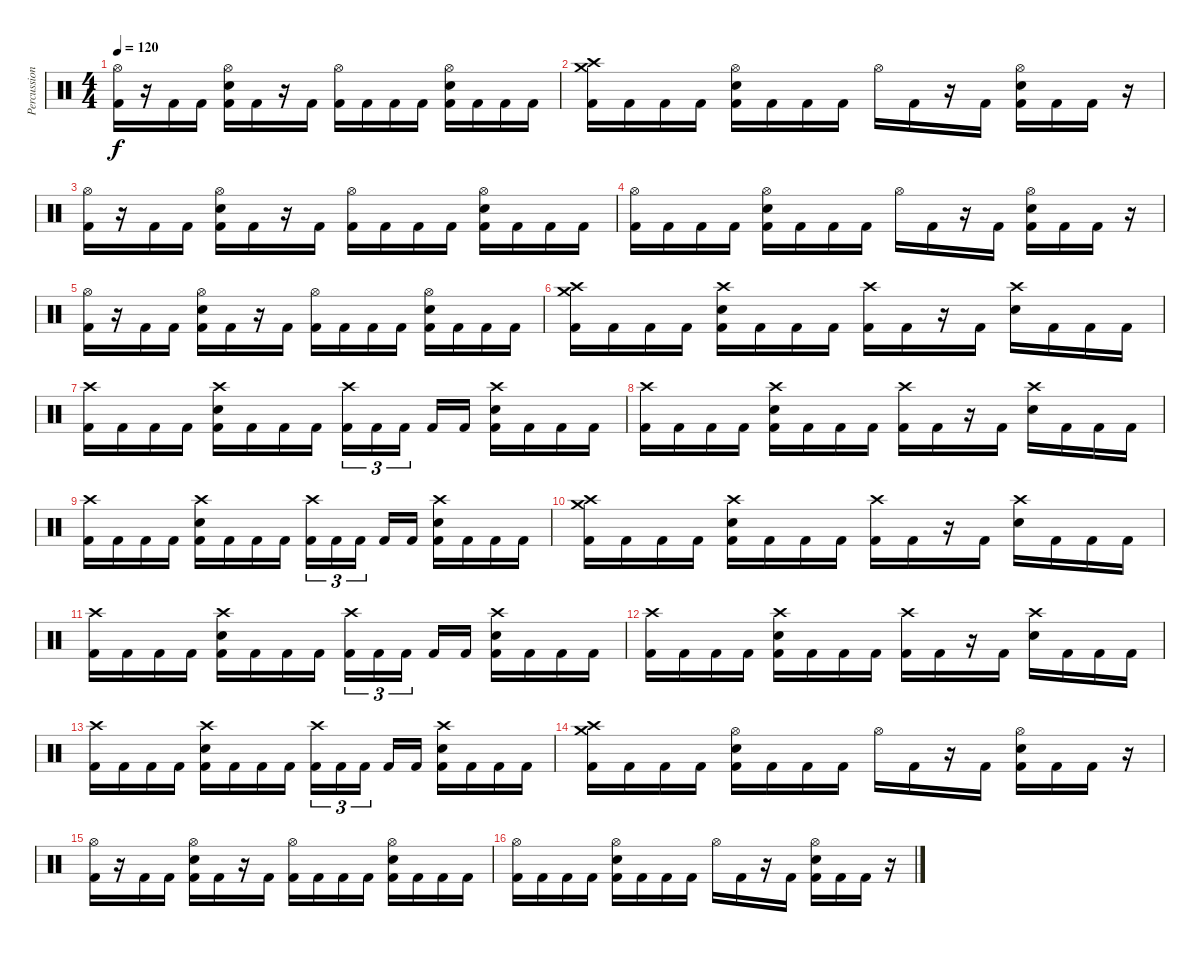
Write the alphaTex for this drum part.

\track ("Percussion" "Percussion") {instrument percussion}
\staff {score}
\articulation defaults
\ts (4 4)
\tempo 120
\clef neutral
\ks c
("Hi-Hat (open)" "Kick (hit) 2").16{dy f} r.16 "Kick (hit) 2".16 "Kick (hit) 2".16 ("Hi-Hat (open)" "Electric Snare (hit)" "Kick (hit) 2").16 "Kick (hit) 2".16 r.16 "Kick (hit) 2".16 ("Hi-Hat (open)" "Kick (hit) 2").16 "Kick (hit) 2".16 "Kick (hit) 2".16 "Kick (hit) 2".16 ("Hi-Hat (open)" "Electric Snare (hit)" "Kick (hit) 2").16 "Kick (hit) 2".16 "Kick (hit) 2".16 "Kick (hit) 2".16 |
("Crash high (hit)" "Crash medium (hit)" "Kick (hit) 2").16 "Kick (hit) 2".16 "Kick (hit) 2".16 "Kick (hit) 2".16 ("Hi-Hat (open)" "Electric Snare (hit)" "Kick (hit) 2").16 "Kick (hit) 2".16 "Kick (hit) 2".16 "Kick (hit) 2".16 "Hi-Hat (open)".16 "Kick (hit) 2".16 r.16 "Kick (hit) 2".16 ("Hi-Hat (open)" "Electric Snare (hit)" "Kick (hit) 2").16 "Kick (hit) 2".16 "Kick (hit) 2".16 r.16 |
("Hi-Hat (open)" "Kick (hit) 2").16 r.16 "Kick (hit) 2".16 "Kick (hit) 2".16 ("Hi-Hat (open)" "Electric Snare (hit)" "Kick (hit) 2").16 "Kick (hit) 2".16 r.16 "Kick (hit) 2".16 ("Hi-Hat (open)" "Kick (hit) 2").16 "Kick (hit) 2".16 "Kick (hit) 2".16 "Kick (hit) 2".16 ("Hi-Hat (open)" "Electric Snare (hit)" "Kick (hit) 2").16 "Kick (hit) 2".16 "Kick (hit) 2".16 "Kick (hit) 2".16 |
("Hi-Hat (open)" "Kick (hit) 2").16 "Kick (hit) 2".16 "Kick (hit) 2".16 "Kick (hit) 2".16 ("Hi-Hat (open)" "Electric Snare (hit)" "Kick (hit) 2").16 "Kick (hit) 2".16 "Kick (hit) 2".16 "Kick (hit) 2".16 "Hi-Hat (open)".16 "Kick (hit) 2".16 r.16 "Kick (hit) 2".16 ("Hi-Hat (open)" "Electric Snare (hit)" "Kick (hit) 2").16 "Kick (hit) 2".16 "Kick (hit) 2".16 r.16 |
("Hi-Hat (open)" "Kick (hit) 2").16 r.16 "Kick (hit) 2".16 "Kick (hit) 2".16 ("Hi-Hat (open)" "Electric Snare (hit)" "Kick (hit) 2").16 "Kick (hit) 2".16 r.16 "Kick (hit) 2".16 ("Hi-Hat (open)" "Kick (hit) 2").16 "Kick (hit) 2".16 "Kick (hit) 2".16 "Kick (hit) 2".16 ("Hi-Hat (open)" "Electric Snare (hit)" "Kick (hit) 2").16 "Kick (hit) 2".16 "Kick (hit) 2".16 "Kick (hit) 2".16 |
("Crash high (hit)" "Crash medium (hit)" "Kick (hit) 2").16 "Kick (hit) 2".16 "Kick (hit) 2".16 "Kick (hit) 2".16 ("Crash high (hit)" "Electric Snare (hit)" "Kick (hit) 2").16 "Kick (hit) 2".16 "Kick (hit) 2".16 "Kick (hit) 2".16 ("Crash high (hit)" "Kick (hit) 2").16 "Kick (hit) 2".16 r.16 "Kick (hit) 2".16 ("Crash high (hit)" "Electric Snare (hit)").16 "Kick (hit) 2".16 "Kick (hit) 2".16 "Kick (hit) 2".16 |
("Crash high (hit)" "Kick (hit) 2").16 "Kick (hit) 2".16 "Kick (hit) 2".16 "Kick (hit) 2".16 ("Crash high (hit)" "Electric Snare (hit)" "Kick (hit) 2").16 "Kick (hit) 2".16 "Kick (hit) 2".16 "Kick (hit) 2".16 ("Crash high (hit)" "Kick (hit) 2").16{tu (3 2)} "Kick (hit) 2".16{tu (3 2)} "Kick (hit) 2".16{tu (3 2) beam splitsecondary} "Kick (hit) 2".16 "Kick (hit) 2".16 ("Crash high (hit)" "Electric Snare (hit)" "Kick (hit) 2").16 "Kick (hit) 2".16 "Kick (hit) 2".16 "Kick (hit) 2".16 |
("Crash high (hit)" "Kick (hit) 2").16 "Kick (hit) 2".16 "Kick (hit) 2".16 "Kick (hit) 2".16 ("Crash high (hit)" "Electric Snare (hit)" "Kick (hit) 2").16 "Kick (hit) 2".16 "Kick (hit) 2".16 "Kick (hit) 2".16 ("Crash high (hit)" "Kick (hit) 2").16 "Kick (hit) 2".16 r.16 "Kick (hit) 2".16 ("Crash high (hit)" "Electric Snare (hit)").16 "Kick (hit) 2".16 "Kick (hit) 2".16 "Kick (hit) 2".16 |
("Crash high (hit)" "Kick (hit) 2").16 "Kick (hit) 2".16 "Kick (hit) 2".16 "Kick (hit) 2".16 ("Crash high (hit)" "Electric Snare (hit)" "Kick (hit) 2").16 "Kick (hit) 2".16 "Kick (hit) 2".16 "Kick (hit) 2".16 ("Crash high (hit)" "Kick (hit) 2").16{tu (3 2)} "Kick (hit) 2".16{tu (3 2)} "Kick (hit) 2".16{tu (3 2) beam splitsecondary} "Kick (hit) 2".16 "Kick (hit) 2".16 ("Crash high (hit)" "Electric Snare (hit)" "Kick (hit) 2").16 "Kick (hit) 2".16 "Kick (hit) 2".16 "Kick (hit) 2".16 |
("Crash high (hit)" "Crash medium (hit)" "Kick (hit) 2").16 "Kick (hit) 2".16 "Kick (hit) 2".16 "Kick (hit) 2".16 ("Crash high (hit)" "Electric Snare (hit)" "Kick (hit) 2").16 "Kick (hit) 2".16 "Kick (hit) 2".16 "Kick (hit) 2".16 ("Crash high (hit)" "Kick (hit) 2").16 "Kick (hit) 2".16 r.16 "Kick (hit) 2".16 ("Crash high (hit)" "Electric Snare (hit)").16 "Kick (hit) 2".16 "Kick (hit) 2".16 "Kick (hit) 2".16 |
("Crash high (hit)" "Kick (hit) 2").16 "Kick (hit) 2".16 "Kick (hit) 2".16 "Kick (hit) 2".16 ("Crash high (hit)" "Electric Snare (hit)" "Kick (hit) 2").16 "Kick (hit) 2".16 "Kick (hit) 2".16 "Kick (hit) 2".16 ("Crash high (hit)" "Kick (hit) 2").16{tu (3 2)} "Kick (hit) 2".16{tu (3 2)} "Kick (hit) 2".16{tu (3 2) beam splitsecondary} "Kick (hit) 2".16 "Kick (hit) 2".16 ("Crash high (hit)" "Electric Snare (hit)" "Kick (hit) 2").16 "Kick (hit) 2".16 "Kick (hit) 2".16 "Kick (hit) 2".16 |
("Crash high (hit)" "Kick (hit) 2").16 "Kick (hit) 2".16 "Kick (hit) 2".16 "Kick (hit) 2".16 ("Crash high (hit)" "Electric Snare (hit)" "Kick (hit) 2").16 "Kick (hit) 2".16 "Kick (hit) 2".16 "Kick (hit) 2".16 ("Crash high (hit)" "Kick (hit) 2").16 "Kick (hit) 2".16 r.16 "Kick (hit) 2".16 ("Crash high (hit)" "Electric Snare (hit)").16 "Kick (hit) 2".16 "Kick (hit) 2".16 "Kick (hit) 2".16 |
("Crash high (hit)" "Kick (hit) 2").16 "Kick (hit) 2".16 "Kick (hit) 2".16 "Kick (hit) 2".16 ("Crash high (hit)" "Electric Snare (hit)" "Kick (hit) 2").16 "Kick (hit) 2".16 "Kick (hit) 2".16 "Kick (hit) 2".16 ("Crash high (hit)" "Kick (hit) 2").16{tu (3 2)} "Kick (hit) 2".16{tu (3 2)} "Kick (hit) 2".16{tu (3 2) beam splitsecondary} "Kick (hit) 2".16 "Kick (hit) 2".16 ("Crash high (hit)" "Electric Snare (hit)" "Kick (hit) 2").16 "Kick (hit) 2".16 "Kick (hit) 2".16 "Kick (hit) 2".16 |
("Crash high (hit)" "Crash medium (hit)" "Kick (hit) 2").16 "Kick (hit) 2".16 "Kick (hit) 2".16 "Kick (hit) 2".16 ("Hi-Hat (open)" "Electric Snare (hit)" "Kick (hit) 2").16 "Kick (hit) 2".16 "Kick (hit) 2".16 "Kick (hit) 2".16 "Hi-Hat (open)".16 "Kick (hit) 2".16 r.16 "Kick (hit) 2".16 ("Hi-Hat (open)" "Electric Snare (hit)" "Kick (hit) 2").16 "Kick (hit) 2".16 "Kick (hit) 2".16 r.16 |
("Hi-Hat (open)" "Kick (hit) 2").16 r.16 "Kick (hit) 2".16 "Kick (hit) 2".16 ("Hi-Hat (open)" "Electric Snare (hit)" "Kick (hit) 2").16 "Kick (hit) 2".16 r.16 "Kick (hit) 2".16 ("Hi-Hat (open)" "Kick (hit) 2").16 "Kick (hit) 2".16 "Kick (hit) 2".16 "Kick (hit) 2".16 ("Hi-Hat (open)" "Electric Snare (hit)" "Kick (hit) 2").16 "Kick (hit) 2".16 "Kick (hit) 2".16 "Kick (hit) 2".16 |
("Hi-Hat (open)" "Kick (hit) 2").16 "Kick (hit) 2".16 "Kick (hit) 2".16 "Kick (hit) 2".16 ("Hi-Hat (open)" "Electric Snare (hit)" "Kick (hit) 2").16 "Kick (hit) 2".16 "Kick (hit) 2".16 "Kick (hit) 2".16 "Hi-Hat (open)".16 "Kick (hit) 2".16 r.16 "Kick (hit) 2".16 ("Hi-Hat (open)" "Electric Snare (hit)" "Kick (hit) 2").16 "Kick (hit) 2".16 "Kick (hit) 2".16 r.16
